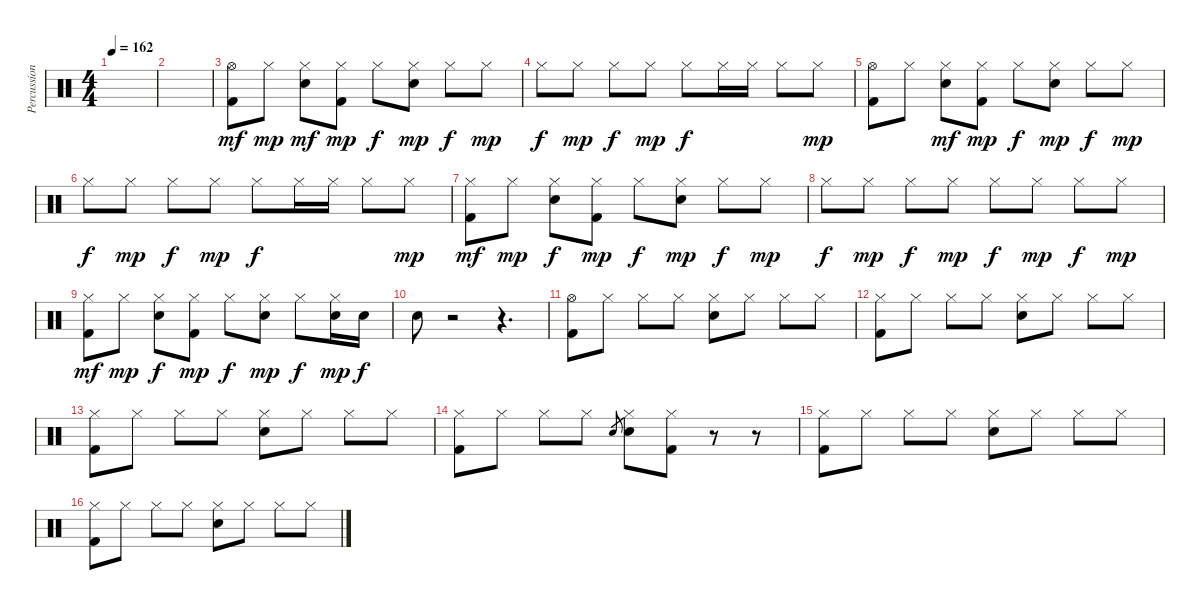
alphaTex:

\track ("Percussion" "Percussion") {instrument percussion}
\staff {score}
\articulation defaults
\ts (4 4)
\tempo 162
\clef neutral
\ks c
|
|
("Kick (hit) 2" "Hi-Hat (open)").8{dy mf} "Hi-Hat (closed)".8{dy mp} ("Snare (hit) 2" "Hi-Hat (closed)").8{dy mf} ("Kick (hit) 2" "Hi-Hat (closed)").8{dy mp} "Hi-Hat (closed)".8{dy f} ("Snare (hit) 2" "Hi-Hat (closed)").8{dy mp} "Hi-Hat (closed)".8{dy f} "Hi-Hat (closed)".8{dy mp} |
"Hi-Hat (closed)".8{dy f} "Hi-Hat (closed)".8{dy mp} "Hi-Hat (closed)".8{dy f} "Hi-Hat (closed)".8{dy mp} "Hi-Hat (closed)".8{dy f} "Hi-Hat (closed)".16 "Hi-Hat (closed)".16 "Hi-Hat (closed)".8 "Hi-Hat (closed)".8{dy mp} |
("Kick (hit) 2" "Hi-Hat (open)").8 "Hi-Hat (closed)".8 ("Snare (hit) 2" "Hi-Hat (closed)").8{dy mf} ("Kick (hit) 2" "Hi-Hat (closed)").8{dy mp} "Hi-Hat (closed)".8{dy f} ("Snare (hit) 2" "Hi-Hat (closed)").8{dy mp} "Hi-Hat (closed)".8{dy f} "Hi-Hat (closed)".8{dy mp} |
"Hi-Hat (closed)".8{dy f} "Hi-Hat (closed)".8{dy mp} "Hi-Hat (closed)".8{dy f} "Hi-Hat (closed)".8{dy mp} "Hi-Hat (closed)".8{dy f} "Hi-Hat (closed)".16 "Hi-Hat (closed)".16 "Hi-Hat (closed)".8 "Hi-Hat (closed)".8{dy mp} |
("Kick (hit) 2" "Hi-Hat (closed)").8{dy mf} "Hi-Hat (closed)".8{dy mp} ("Snare (hit) 2" "Hi-Hat (closed)").8{dy f} ("Kick (hit) 2" "Hi-Hat (closed)").8{dy mp} "Hi-Hat (closed)".8{dy f} ("Snare (hit) 2" "Hi-Hat (closed)").8{dy mp} "Hi-Hat (closed)".8{dy f} "Hi-Hat (closed)".8{dy mp} |
"Hi-Hat (closed)".8{dy f} "Hi-Hat (closed)".8{dy mp} "Hi-Hat (closed)".8{dy f} "Hi-Hat (closed)".8{dy mp} "Hi-Hat (closed)".8{dy f} "Hi-Hat (closed)".8{dy mp} "Hi-Hat (closed)".8{dy f} "Hi-Hat (closed)".8{dy mp} |
("Kick (hit) 2" "Hi-Hat (closed)").8{dy mf} "Hi-Hat (closed)".8{dy mp} ("Snare (hit) 2" "Hi-Hat (closed)").8{dy f} ("Kick (hit) 2" "Hi-Hat (closed)").8{dy mp} "Hi-Hat (closed)".8{dy f} ("Snare (hit) 2" "Hi-Hat (closed)").8{dy mp} "Hi-Hat (closed)".8{dy f} ("Snare (hit) 2" "Hi-Hat (closed)").16{dy mp} "Snare (hit) 2".16{dy f} |
"Snare (hit) 2".8 r.2 r.4{d} |
("Kick (hit) 2" "Hi-Hat (open)").8 "Hi-Hat (closed)".8 "Hi-Hat (closed)".8 "Hi-Hat (closed)".8 ("Snare (hit) 2" "Hi-Hat (closed)").8 "Hi-Hat (closed)".8 "Hi-Hat (closed)".8 "Hi-Hat (closed)".8 |
("Kick (hit) 2" "Hi-Hat (closed)").8 "Hi-Hat (closed)".8 "Hi-Hat (closed)".8 "Hi-Hat (closed)".8 ("Snare (hit) 2" "Hi-Hat (closed)").8 "Hi-Hat (closed)".8 "Hi-Hat (closed)".8 "Hi-Hat (closed)".8 |
("Kick (hit) 2" "Hi-Hat (closed)").8 "Hi-Hat (closed)".8 "Hi-Hat (closed)".8 "Hi-Hat (closed)".8 ("Snare (hit) 2" "Hi-Hat (closed)").8 "Hi-Hat (closed)".8 "Hi-Hat (closed)".8 "Hi-Hat (closed)".8 |
("Kick (hit) 2" "Hi-Hat (closed)").8 "Hi-Hat (closed)".8 "Hi-Hat (closed)".8 "Hi-Hat (closed)".8 "Snare (hit) 2".8{gr} ("Snare (hit) 2" "Hi-Hat (closed)").8 ("Kick (hit) 2" "Hi-Hat (closed)").8 r.8 r.8 |
("Kick (hit) 2" "Hi-Hat (closed)").8 "Hi-Hat (closed)".8 "Hi-Hat (closed)".8 "Hi-Hat (closed)".8 ("Snare (hit) 2" "Hi-Hat (closed)").8 "Hi-Hat (closed)".8 "Hi-Hat (closed)".8 "Hi-Hat (closed)".8 |
("Kick (hit) 2" "Hi-Hat (closed)").8 "Hi-Hat (closed)".8 "Hi-Hat (closed)".8 "Hi-Hat (closed)".8 ("Snare (hit) 2" "Hi-Hat (closed)").8 "Hi-Hat (closed)".8 "Hi-Hat (closed)".8 "Hi-Hat (closed)".8
